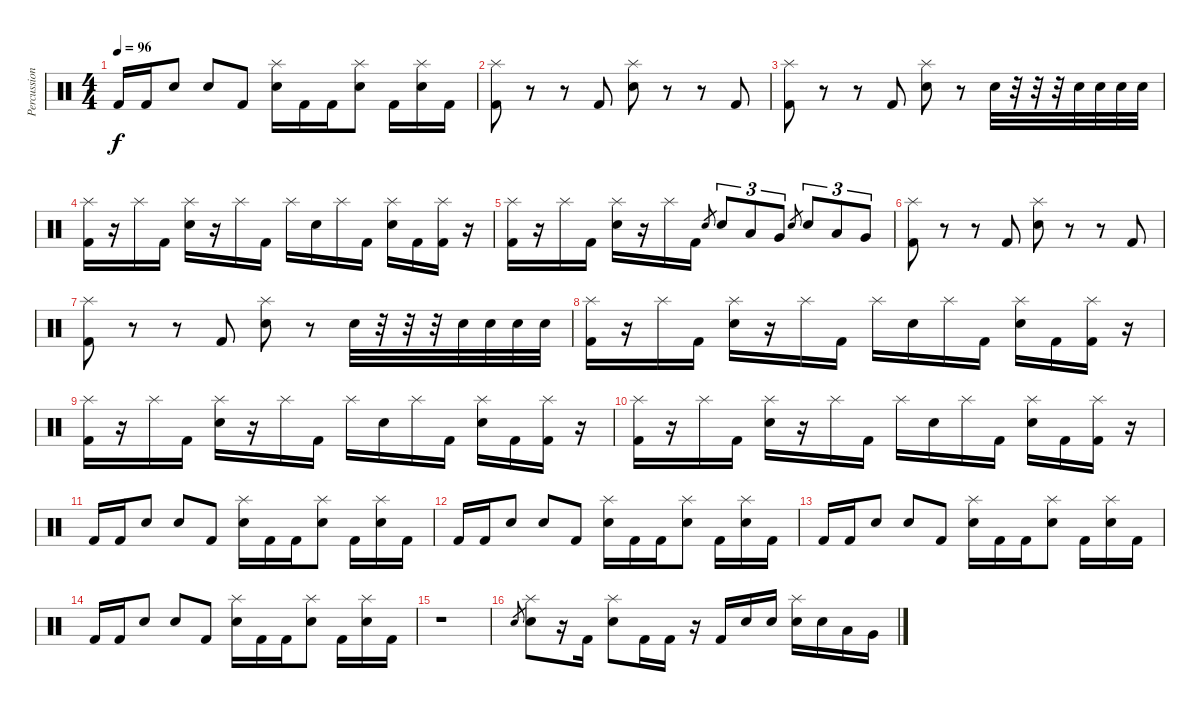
\track ("Percussion" "Percussion") {instrument percussion}
\staff {score}
\articulation defaults
\ts (4 4)
\tempo 96
\clef neutral
\ks c "Kick (hit) 2".16{dy f} "Kick (hit) 2".16 "Snare (hit) 2".8 "Snare (hit) 2".8 "Kick (hit) 2".8
("Splash (hit)" "Snare (hit) 2").16 "Kick (hit) 2".16 "Kick (hit) 2".16 ("Splash (hit)" "Snare (hit) 2").8 "Kick (hit) 2".16 ("Splash (hit)" "Snare (hit) 2").16 "Kick (hit) 2".16 |
("Splash (hit)" "Kick (hit) 2").8 r.8 r.8 "Kick (hit) 2".8 ("Splash (hit)" "Snare (hit) 2").8 r.8 r.8 "Kick (hit) 2".8 |
("Splash (hit)" "Kick (hit) 2").8 r.8 r.8 "Kick (hit) 2".8 ("Splash (hit)" "Snare (hit) 2").8 r.8 "Snare (hit) 2".32 r.32 r.32 r.32 "Snare (hit) 2".32 "Snare (hit) 2".32 "Snare (hit) 2".32 "Snare (hit) 2".32 |
("Splash (hit)" "Kick (hit) 2").16 r.16 "Splash (hit)".16 "Kick (hit) 2".16 ("Splash (hit)" "Snare (hit) 2").16 r.16 "Splash (hit)".16 "Kick (hit) 2".16 "Splash (hit)".16 "Snare (hit) 2".16 "Splash (hit)".16 "Kick (hit) 2".16 ("Splash (hit)" "Snare (hit) 2").16 "Kick (hit) 2".16 ("Splash (hit)" "Kick (hit) 2").16 r.16 |
("Splash (hit)" "Kick (hit) 2").16 r.16 "Splash (hit)".16 "Kick (hit) 2".16 ("Splash (hit)" "Snare (hit) 2").16 r.16 "Splash (hit)".16 "Kick (hit) 2".16 "Snare (hit) 2".8{gr} "Snare (hit) 2".8{tu (3 2)} "Low Tom (hit)".8{tu (3 2)} "Very Low Tom (hit)".8{tu (3 2)} "Snare (hit) 2".8{gr} "Snare (hit) 2".8{tu (3 2)} "Low Tom (hit)".8{tu (3 2)} "Very Low Tom (hit)".8{tu (3 2)} |
("Splash (hit)" "Kick (hit) 2").8 r.8 r.8 "Kick (hit) 2".8 ("Splash (hit)" "Snare (hit) 2").8 r.8 r.8 "Kick (hit) 2".8 |
("Splash (hit)" "Kick (hit) 2").8 r.8 r.8 "Kick (hit) 2".8 ("Splash (hit)" "Snare (hit) 2").8 r.8 "Snare (hit) 2".32 r.32 r.32 r.32 "Snare (hit) 2".32 "Snare (hit) 2".32 "Snare (hit) 2".32 "Snare (hit) 2".32 |
("Splash (hit)" "Kick (hit) 2").16 r.16 "Splash (hit)".16 "Kick (hit) 2".16 ("Splash (hit)" "Snare (hit) 2").16 r.16 "Splash (hit)".16 "Kick (hit) 2".16 "Splash (hit)".16 "Snare (hit) 2".16 "Splash (hit)".16 "Kick (hit) 2".16 ("Splash (hit)" "Snare (hit) 2").16 "Kick (hit) 2".16 ("Splash (hit)" "Kick (hit) 2").16 r.16 |
("Splash (hit)" "Kick (hit) 2").16 r.16 "Splash (hit)".16 "Kick (hit) 2".16 ("Splash (hit)" "Snare (hit) 2").16 r.16 "Splash (hit)".16 "Kick (hit) 2".16 "Splash (hit)".16 "Snare (hit) 2".16 "Splash (hit)".16 "Kick (hit) 2".16 ("Splash (hit)" "Snare (hit) 2").16 "Kick (hit) 2".16 ("Splash (hit)" "Kick (hit) 2").16 r.16 |
("Splash (hit)" "Kick (hit) 2").16 r.16 "Splash (hit)".16 "Kick (hit) 2".16 ("Splash (hit)" "Snare (hit) 2").16 r.16 "Splash (hit)".16 "Kick (hit) 2".16 "Splash (hit)".16 "Snare (hit) 2".16 "Splash (hit)".16 "Kick (hit) 2".16 ("Splash (hit)" "Snare (hit) 2").16 "Kick (hit) 2".16 ("Splash (hit)" "Kick (hit) 2").16 r.16 |
"Kick (hit) 2".16 "Kick (hit) 2".16 "Snare (hit) 2".8 "Snare (hit) 2".8 "Kick (hit) 2".8 ("Splash (hit)" "Snare (hit) 2").16 "Kick (hit) 2".16 "Kick (hit) 2".16 ("Splash (hit)" "Snare (hit) 2").8 "Kick (hit) 2".16 ("Splash (hit)" "Snare (hit) 2").16 "Kick (hit) 2".16 |
"Kick (hit) 2".16 "Kick (hit) 2".16 "Snare (hit) 2".8 "Snare (hit) 2".8 "Kick (hit) 2".8 ("Splash (hit)" "Snare (hit) 2").16 "Kick (hit) 2".16 "Kick (hit) 2".16 ("Splash (hit)" "Snare (hit) 2").8 "Kick (hit) 2".16 ("Splash (hit)" "Snare (hit) 2").16 "Kick (hit) 2".16 |
"Kick (hit) 2".16 "Kick (hit) 2".16 "Snare (hit) 2".8 "Snare (hit) 2".8 "Kick (hit) 2".8 ("Splash (hit)" "Snare (hit) 2").16 "Kick (hit) 2".16 "Kick (hit) 2".16 ("Splash (hit)" "Snare (hit) 2").8 "Kick (hit) 2".16 ("Splash (hit)" "Snare (hit) 2").16 "Kick (hit) 2".16 |
"Kick (hit) 2".16 "Kick (hit) 2".16 "Snare (hit) 2".8 "Snare (hit) 2".8 "Kick (hit) 2".8 ("Splash (hit)" "Snare (hit) 2").16 "Kick (hit) 2".16 "Kick (hit) 2".16 ("Splash (hit)" "Snare (hit) 2").8 "Kick (hit) 2".16 ("Splash (hit)" "Snare (hit) 2").16 "Kick (hit) 2".16 |
r.1 |
"Snare (hit) 2".8{gr} ("Splash (hit)" "Snare (hit) 2").8 r.16 "Kick (hit) 2".16 ("Splash (hit)" "Snare (hit) 2").8 "Kick (hit) 2".16 "Kick (hit) 2".16 r.16 "Kick (hit) 2".16 "Snare (hit) 2".16 "Snare (hit) 2".16 ("Splash (hit)" "Snare (hit) 2").16 "Snare (hit) 2".16 "Low Tom (hit)".16 "Very Low Tom (hit)".16
